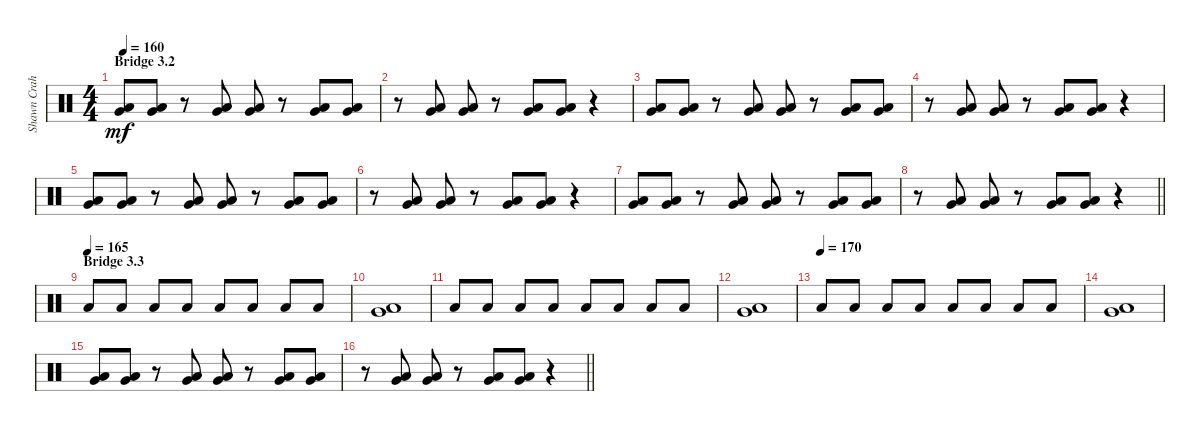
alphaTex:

\track ("Shawn Crahan" "Shawn Crah") {instrument percussion}
\staff {score}
\articulation defaults
\ts (4 4)
\section ("" "Bridge 3.2")
\tempo 160
\clef neutral
\ks c
("Very Low Tom (hit)" "Low Floor Tom (hit)").8{dy mf} ("Very Low Tom (hit)" "Low Floor Tom (hit)").8 r.8 ("Very Low Tom (hit)" "Low Floor Tom (hit)").8 ("Very Low Tom (hit)" "Low Floor Tom (hit)").8 r.8 ("Very Low Tom (hit)" "Low Floor Tom (hit)").8 ("Very Low Tom (hit)" "Low Floor Tom (hit)").8 |
r.8 ("Very Low Tom (hit)" "Low Floor Tom (hit)").8 ("Very Low Tom (hit)" "Low Floor Tom (hit)").8 r.8 ("Very Low Tom (hit)" "Low Floor Tom (hit)").8 ("Very Low Tom (hit)" "Low Floor Tom (hit)").8 r.4 |
("Very Low Tom (hit)" "Low Floor Tom (hit)").8 ("Very Low Tom (hit)" "Low Floor Tom (hit)").8 r.8 ("Very Low Tom (hit)" "Low Floor Tom (hit)").8 ("Very Low Tom (hit)" "Low Floor Tom (hit)").8 r.8 ("Very Low Tom (hit)" "Low Floor Tom (hit)").8 ("Very Low Tom (hit)" "Low Floor Tom (hit)").8 |
r.8 ("Very Low Tom (hit)" "Low Floor Tom (hit)").8 ("Very Low Tom (hit)" "Low Floor Tom (hit)").8 r.8 ("Very Low Tom (hit)" "Low Floor Tom (hit)").8 ("Very Low Tom (hit)" "Low Floor Tom (hit)").8 r.4 |
("Very Low Tom (hit)" "Low Floor Tom (hit)").8 ("Very Low Tom (hit)" "Low Floor Tom (hit)").8 r.8 ("Very Low Tom (hit)" "Low Floor Tom (hit)").8 ("Very Low Tom (hit)" "Low Floor Tom (hit)").8 r.8 ("Very Low Tom (hit)" "Low Floor Tom (hit)").8 ("Very Low Tom (hit)" "Low Floor Tom (hit)").8 |
r.8 ("Very Low Tom (hit)" "Low Floor Tom (hit)").8 ("Very Low Tom (hit)" "Low Floor Tom (hit)").8 r.8 ("Very Low Tom (hit)" "Low Floor Tom (hit)").8 ("Very Low Tom (hit)" "Low Floor Tom (hit)").8 r.4 |
("Very Low Tom (hit)" "Low Floor Tom (hit)").8 ("Very Low Tom (hit)" "Low Floor Tom (hit)").8 r.8 ("Very Low Tom (hit)" "Low Floor Tom (hit)").8 ("Very Low Tom (hit)" "Low Floor Tom (hit)").8 r.8 ("Very Low Tom (hit)" "Low Floor Tom (hit)").8 ("Very Low Tom (hit)" "Low Floor Tom (hit)").8 |
\barLineRight lightlight
r.8 ("Very Low Tom (hit)" "Low Floor Tom (hit)").8 ("Very Low Tom (hit)" "Low Floor Tom (hit)").8 r.8 ("Very Low Tom (hit)" "Low Floor Tom (hit)").8 ("Very Low Tom (hit)" "Low Floor Tom (hit)").8 r.4 |
\section ("" "Bridge 3.3")
\tempo (165)
"Low Floor Tom (hit)".8 "Low Floor Tom (hit)".8 "Low Floor Tom (hit)".8 "Low Floor Tom (hit)".8 "Low Floor Tom (hit)".8 "Low Floor Tom (hit)".8 "Low Floor Tom (hit)".8 "Low Floor Tom (hit)".8 |
("Very Low Tom (hit)" "Low Floor Tom (hit)").1 |
"Low Floor Tom (hit)".8 "Low Floor Tom (hit)".8 "Low Floor Tom (hit)".8 "Low Floor Tom (hit)".8 "Low Floor Tom (hit)".8 "Low Floor Tom (hit)".8 "Low Floor Tom (hit)".8 "Low Floor Tom (hit)".8 |
("Very Low Tom (hit)" "Low Floor Tom (hit)").1 |
\tempo (170)
"Low Floor Tom (hit)".8 "Low Floor Tom (hit)".8 "Low Floor Tom (hit)".8 "Low Floor Tom (hit)".8 "Low Floor Tom (hit)".8 "Low Floor Tom (hit)".8 "Low Floor Tom (hit)".8 "Low Floor Tom (hit)".8 |
("Very Low Tom (hit)" "Low Floor Tom (hit)").1 |
("Very Low Tom (hit)" "Low Floor Tom (hit)").8 ("Very Low Tom (hit)" "Low Floor Tom (hit)").8 r.8 ("Very Low Tom (hit)" "Low Floor Tom (hit)").8 ("Very Low Tom (hit)" "Low Floor Tom (hit)").8 r.8 ("Very Low Tom (hit)" "Low Floor Tom (hit)").8 ("Very Low Tom (hit)" "Low Floor Tom (hit)").8 |
\barLineRight lightlight
r.8 ("Very Low Tom (hit)" "Low Floor Tom (hit)").8 ("Very Low Tom (hit)" "Low Floor Tom (hit)").8 r.8 ("Very Low Tom (hit)" "Low Floor Tom (hit)").8 ("Very Low Tom (hit)" "Low Floor Tom (hit)").8 r.4
